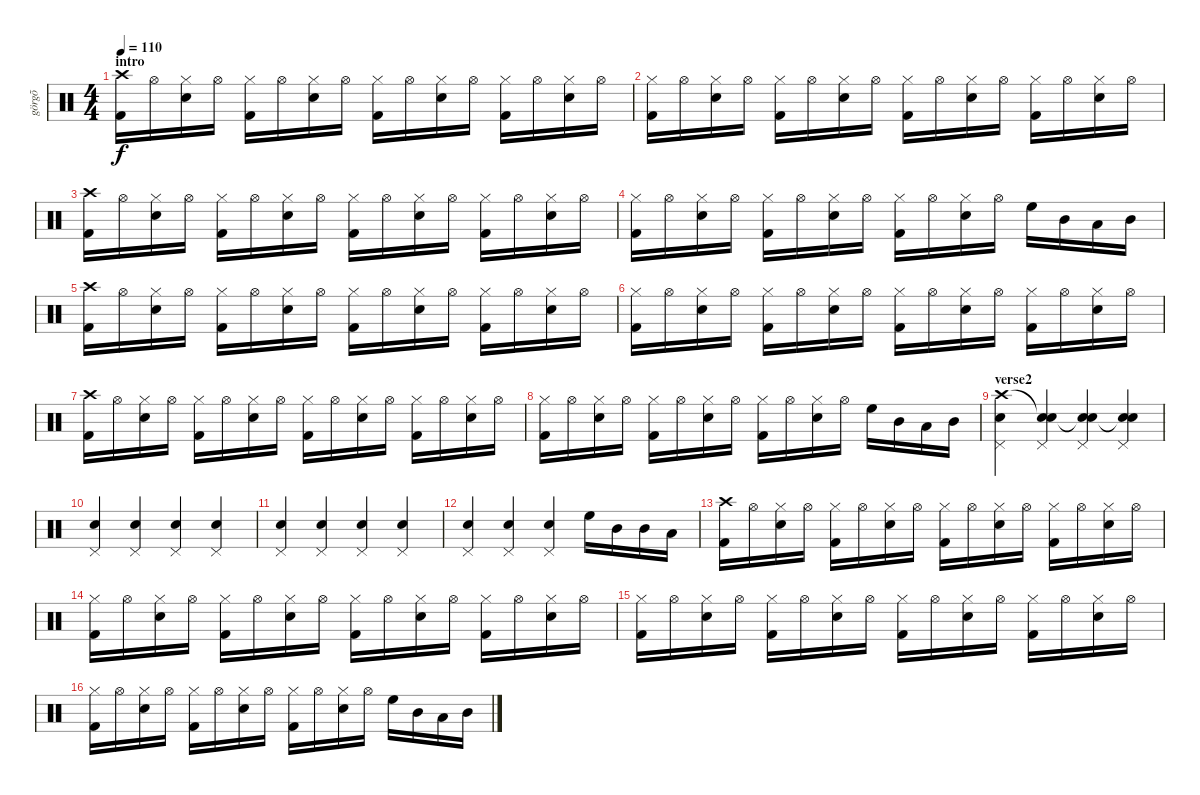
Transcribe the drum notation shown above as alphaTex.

\track ("görgõ" "görgõ") {instrument percussion}
\staff {score}
\articulation defaults
\ts (4 4)
\section ("" "intro")
\tempo 110
\clef neutral
\ks c
("Crash high (hit)" "Kick (hit) 2").16{dy f} "Hi-Hat (open)".16 ("Hi-Hat (closed)" "Snare (hit) 2").16 "Hi-Hat (open)".16 ("Hi-Hat (closed)" "Kick (hit) 2").16 "Hi-Hat (open)".16 ("Hi-Hat (closed)" "Snare (hit) 2").16 "Hi-Hat (open)".16 ("Hi-Hat (closed)" "Kick (hit) 2").16 "Hi-Hat (open)".16 ("Hi-Hat (closed)" "Snare (hit) 2").16 "Hi-Hat (open)".16 ("Hi-Hat (closed)" "Kick (hit) 2").16 "Hi-Hat (open)".16 ("Hi-Hat (closed)" "Snare (hit) 2").16 "Hi-Hat (open)".16 |
("Hi-Hat (closed)" "Kick (hit) 2").16 "Hi-Hat (open)".16 ("Hi-Hat (closed)" "Snare (hit) 2").16 "Hi-Hat (open)".16 ("Hi-Hat (closed)" "Kick (hit) 2").16 "Hi-Hat (open)".16 ("Hi-Hat (closed)" "Snare (hit) 2").16 "Hi-Hat (open)".16 ("Hi-Hat (closed)" "Kick (hit) 2").16 "Hi-Hat (open)".16 ("Hi-Hat (closed)" "Snare (hit) 2").16 "Hi-Hat (open)".16 ("Hi-Hat (closed)" "Kick (hit) 2").16 "Hi-Hat (open)".16 ("Hi-Hat (closed)" "Snare (hit) 2").16 "Hi-Hat (open)".16 |
("Crash high (hit)" "Kick (hit) 2").16 "Hi-Hat (open)".16 ("Hi-Hat (closed)" "Snare (hit) 2").16 "Hi-Hat (open)".16 ("Hi-Hat (closed)" "Kick (hit) 2").16 "Hi-Hat (open)".16 ("Hi-Hat (closed)" "Snare (hit) 2").16 "Hi-Hat (open)".16 ("Hi-Hat (closed)" "Kick (hit) 2").16 "Hi-Hat (open)".16 ("Hi-Hat (closed)" "Snare (hit) 2").16 "Hi-Hat (open)".16 ("Hi-Hat (closed)" "Kick (hit) 2").16 "Hi-Hat (open)".16 ("Hi-Hat (closed)" "Snare (hit) 2").16 "Hi-Hat (open)".16 |
("Hi-Hat (closed)" "Kick (hit) 2").16 "Hi-Hat (open)".16 ("Hi-Hat (closed)" "Snare (hit) 2").16 "Hi-Hat (open)".16 ("Hi-Hat (closed)" "Kick (hit) 2").16 "Hi-Hat (open)".16 ("Hi-Hat (closed)" "Snare (hit) 2").16 "Hi-Hat (open)".16 ("Hi-Hat (closed)" "Kick (hit) 2").16 "Hi-Hat (open)".16 ("Hi-Hat (closed)" "Snare (hit) 2").16 "Hi-Hat (open)".16 "High Floor Tom (hit)".16 "Mid Tom (hit)".16 "Low Tom (hit)".16 "Mid Tom (hit)".16 |
("Crash high (hit)" "Kick (hit) 2").16 "Hi-Hat (open)".16 ("Hi-Hat (closed)" "Snare (hit) 2").16 "Hi-Hat (open)".16 ("Hi-Hat (closed)" "Kick (hit) 2").16 "Hi-Hat (open)".16 ("Hi-Hat (closed)" "Snare (hit) 2").16 "Hi-Hat (open)".16 ("Hi-Hat (closed)" "Kick (hit) 2").16 "Hi-Hat (open)".16 ("Hi-Hat (closed)" "Snare (hit) 2").16 "Hi-Hat (open)".16 ("Hi-Hat (closed)" "Kick (hit) 2").16 "Hi-Hat (open)".16 ("Hi-Hat (closed)" "Snare (hit) 2").16 "Hi-Hat (open)".16 |
("Hi-Hat (closed)" "Kick (hit) 2").16 "Hi-Hat (open)".16 ("Hi-Hat (closed)" "Snare (hit) 2").16 "Hi-Hat (open)".16 ("Hi-Hat (closed)" "Kick (hit) 2").16 "Hi-Hat (open)".16 ("Hi-Hat (closed)" "Snare (hit) 2").16 "Hi-Hat (open)".16 ("Hi-Hat (closed)" "Kick (hit) 2").16 "Hi-Hat (open)".16 ("Hi-Hat (closed)" "Snare (hit) 2").16 "Hi-Hat (open)".16 ("Hi-Hat (closed)" "Kick (hit) 2").16 "Hi-Hat (open)".16 ("Hi-Hat (closed)" "Snare (hit) 2").16 "Hi-Hat (open)".16 |
("Crash high (hit)" "Kick (hit) 2").16 "Hi-Hat (open)".16 ("Hi-Hat (closed)" "Snare (hit) 2").16 "Hi-Hat (open)".16 ("Hi-Hat (closed)" "Kick (hit) 2").16 "Hi-Hat (open)".16 ("Hi-Hat (closed)" "Snare (hit) 2").16 "Hi-Hat (open)".16 ("Hi-Hat (closed)" "Kick (hit) 2").16 "Hi-Hat (open)".16 ("Hi-Hat (closed)" "Snare (hit) 2").16 "Hi-Hat (open)".16 ("Hi-Hat (closed)" "Kick (hit) 2").16 "Hi-Hat (open)".16 ("Hi-Hat (closed)" "Snare (hit) 2").16 "Hi-Hat (open)".16 |
("Hi-Hat (closed)" "Kick (hit) 2").16 "Hi-Hat (open)".16 ("Hi-Hat (closed)" "Snare (hit) 2").16 "Hi-Hat (open)".16 ("Hi-Hat (closed)" "Kick (hit) 2").16 "Hi-Hat (open)".16 ("Hi-Hat (closed)" "Snare (hit) 2").16 "Hi-Hat (open)".16 ("Hi-Hat (closed)" "Kick (hit) 2").16 "Hi-Hat (open)".16 ("Hi-Hat (closed)" "Snare (hit) 2").16 "Hi-Hat (open)".16 "High Floor Tom (hit)".16 "Mid Tom (hit)".16 "Low Tom (hit)".16 "Mid Tom (hit)".16 |
\section ("" "verse2")
("Crash high (hit)" "Snare (hit) 2" "Pedal Hi-Hat (hit)").4 ("Snare (hit) 2"{t} "Snare (hit) 2" "Pedal Hi-Hat (hit)").4 ("Snare (hit) 2"{t} "Snare (hit) 2" "Pedal Hi-Hat (hit)").4 ("Snare (hit) 2"{t} "Snare (hit) 2" "Pedal Hi-Hat (hit)").4 |
("Snare (hit) 2" "Pedal Hi-Hat (hit)").4 ("Snare (hit) 2" "Pedal Hi-Hat (hit)").4 ("Snare (hit) 2" "Pedal Hi-Hat (hit)").4 ("Snare (hit) 2" "Pedal Hi-Hat (hit)").4 |
("Snare (hit) 2" "Pedal Hi-Hat (hit)").4 ("Snare (hit) 2" "Pedal Hi-Hat (hit)").4 ("Snare (hit) 2" "Pedal Hi-Hat (hit)").4 ("Snare (hit) 2" "Pedal Hi-Hat (hit)").4 |
("Snare (hit) 2" "Pedal Hi-Hat (hit)").4 ("Snare (hit) 2" "Pedal Hi-Hat (hit)").4 ("Snare (hit) 2" "Pedal Hi-Hat (hit)").4 "High Floor Tom (hit)".16 "Mid Tom (hit)".16 "Mid Tom (hit)".16 "Low Tom (hit)".16 |
("Crash high (hit)" "Kick (hit) 2").16 "Hi-Hat (open)".16 ("Hi-Hat (closed)" "Snare (hit) 2").16 "Hi-Hat (open)".16 ("Hi-Hat (closed)" "Kick (hit) 2").16 "Hi-Hat (open)".16 ("Hi-Hat (closed)" "Snare (hit) 2").16 "Hi-Hat (open)".16 ("Hi-Hat (closed)" "Kick (hit) 2").16 "Hi-Hat (open)".16 ("Hi-Hat (closed)" "Snare (hit) 2").16 "Hi-Hat (open)".16 ("Hi-Hat (closed)" "Kick (hit) 2").16 "Hi-Hat (open)".16 ("Hi-Hat (closed)" "Snare (hit) 2").16 "Hi-Hat (open)".16 |
("Hi-Hat (closed)" "Kick (hit) 2").16 "Hi-Hat (open)".16 ("Hi-Hat (closed)" "Snare (hit) 2").16 "Hi-Hat (open)".16 ("Hi-Hat (closed)" "Kick (hit) 2").16 "Hi-Hat (open)".16 ("Hi-Hat (closed)" "Snare (hit) 2").16 "Hi-Hat (open)".16 ("Hi-Hat (closed)" "Kick (hit) 2").16 "Hi-Hat (open)".16 ("Hi-Hat (closed)" "Snare (hit) 2").16 "Hi-Hat (open)".16 ("Hi-Hat (closed)" "Kick (hit) 2").16 "Hi-Hat (open)".16 ("Hi-Hat (closed)" "Snare (hit) 2").16 "Hi-Hat (open)".16 |
("Hi-Hat (closed)" "Kick (hit) 2").16 "Hi-Hat (open)".16 ("Hi-Hat (closed)" "Snare (hit) 2").16 "Hi-Hat (open)".16 ("Hi-Hat (closed)" "Kick (hit) 2").16 "Hi-Hat (open)".16 ("Hi-Hat (closed)" "Snare (hit) 2").16 "Hi-Hat (open)".16 ("Hi-Hat (closed)" "Kick (hit) 2").16 "Hi-Hat (open)".16 ("Hi-Hat (closed)" "Snare (hit) 2").16 "Hi-Hat (open)".16 ("Hi-Hat (closed)" "Kick (hit) 2").16 "Hi-Hat (open)".16 ("Hi-Hat (closed)" "Snare (hit) 2").16 "Hi-Hat (open)".16 |
("Hi-Hat (closed)" "Kick (hit) 2").16 "Hi-Hat (open)".16 ("Hi-Hat (closed)" "Snare (hit) 2").16 "Hi-Hat (open)".16 ("Hi-Hat (closed)" "Kick (hit) 2").16 "Hi-Hat (open)".16 ("Hi-Hat (closed)" "Snare (hit) 2").16 "Hi-Hat (open)".16 ("Hi-Hat (closed)" "Kick (hit) 2").16 "Hi-Hat (open)".16 ("Hi-Hat (closed)" "Snare (hit) 2").16 "Hi-Hat (open)".16 "High Floor Tom (hit)".16 "Mid Tom (hit)".16 "Low Tom (hit)".16 "Mid Tom (hit)".16
